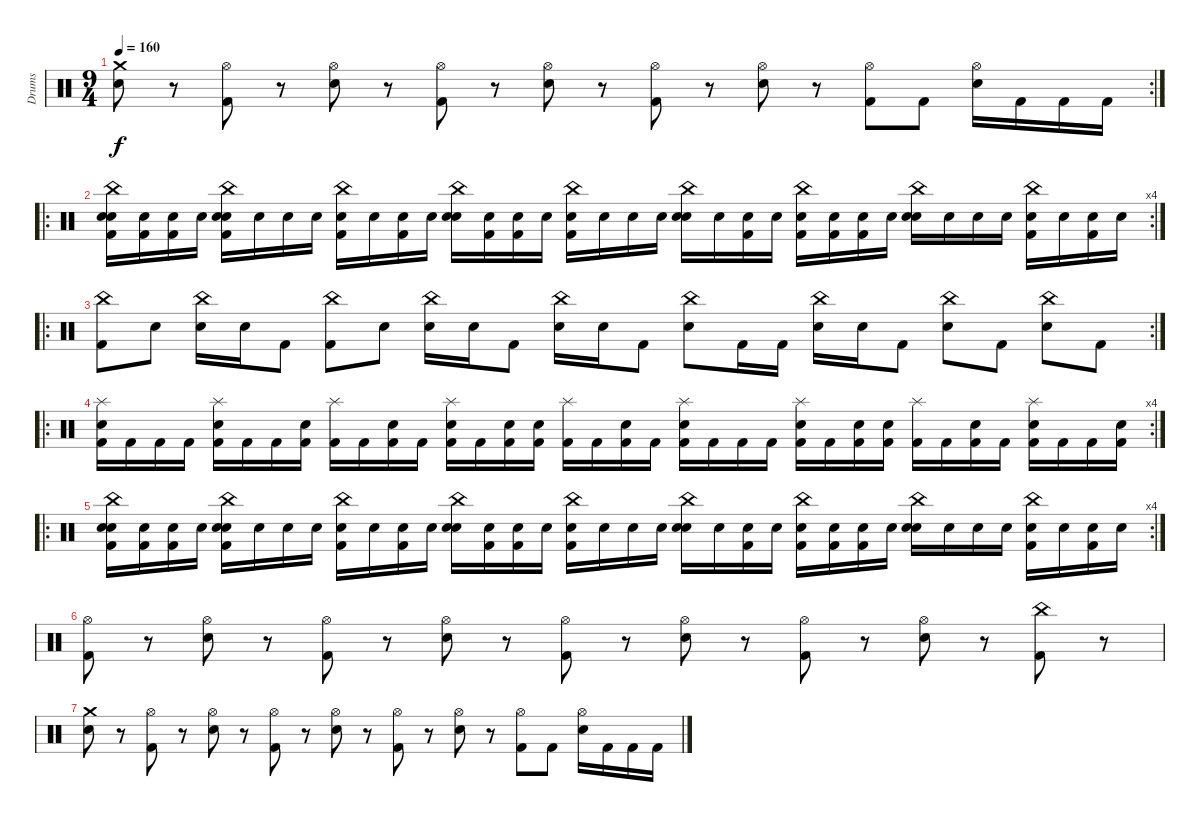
\track ("Drums" "Drums") {instrument percussion}
\staff {score}
\articulation defaults
\rc 2
\ts (9 4)
\tempo 160
\clef neutral
\ks c
("Snare (hit) 2" "Crash medium (hit)").8{dy f} r.8 ("Kick (hit) 2" "Hi-Hat (open)").8 r.8 ("Snare (hit) 2" "Hi-Hat (open)").8 r.8 ("Kick (hit) 2" "Hi-Hat (open)").8 r.8 ("Snare (hit) 2" "Hi-Hat (open)").8 r.8 ("Kick (hit) 2" "Hi-Hat (open)").8 r.8 ("Snare (hit) 2" "Hi-Hat (open)").8 r.8 ("Kick (hit) 2" "Hi-Hat (open)").8 "Kick (hit) 2".8 ("Snare (hit) 2" "Hi-Hat (open)").16 "Kick (hit) 2".16 "Kick (hit) 2".16 "Kick (hit) 2".16 |
\ro
\rc 4
("Snare (hit)" "Kick (hit) 2" "Snare (hit) 2" "China (hit)").16 ("Snare (hit)" "Kick (hit) 2").16 ("Snare (hit)" "Kick (hit) 2").16 "Snare (hit)".16 ("Snare (hit)" "Kick (hit) 2" "Snare (hit) 2" "China (hit)").16 "Snare (hit)".16 "Snare (hit)".16 "Snare (hit)".16 ("Snare (hit)" "Kick (hit) 2" "China (hit)").16 "Snare (hit)".16 ("Snare (hit)" "Kick (hit) 2").16 "Snare (hit)".16 ("Snare (hit)" "Snare (hit) 2" "China (hit)").16 ("Snare (hit)" "Kick (hit) 2").16 ("Snare (hit)" "Kick (hit) 2").16 "Snare (hit)".16 ("Snare (hit)" "Kick (hit) 2" "China (hit)").16 "Snare (hit)".16 "Snare (hit)".16 "Snare (hit)".16 ("Snare (hit)" "Snare (hit) 2" "China (hit)").16 "Snare (hit)".16 ("Snare (hit)" "Kick (hit) 2").16 "Snare (hit)".16 ("Snare (hit)" "Kick (hit) 2" "China (hit)").16 ("Snare (hit)" "Kick (hit) 2").16 ("Snare (hit)" "Kick (hit) 2").16 "Snare (hit)".16 ("Snare (hit)" "Snare (hit) 2" "China (hit)").16 "Snare (hit)".16 "Snare (hit)".16 "Snare (hit)".16 ("Snare (hit)" "Kick (hit) 2" "China (hit)").16 "Snare (hit)".16 ("Snare (hit)" "Kick (hit) 2").16 "Snare (hit)".16 |
\ro
\rc 2
("China (hit)" "Kick (hit) 2").8 "Snare (hit) 2".8 ("China (hit)" "Snare (hit) 2").16 "Snare (hit) 2".16 "Kick (hit) 2".8 ("China (hit)" "Kick (hit) 2").8 "Snare (hit) 2".8 ("China (hit)" "Snare (hit) 2").16 "Snare (hit) 2".16 "Kick (hit) 2".8 ("China (hit)" "Snare (hit) 2").16 "Snare (hit) 2".16 "Kick (hit) 2".8 ("China (hit)" "Snare (hit) 2").8 "Kick (hit) 2".16 "Kick (hit) 2".16 ("China (hit)" "Snare (hit) 2").16 "Snare (hit) 2".16 "Kick (hit) 2".8 ("China (hit)" "Snare (hit) 2").8 "Kick (hit) 2".8 ("China (hit)" "Snare (hit) 2").8 "Kick (hit) 2".8 |
\ro
\rc 4
("Kick (hit) 2" "Snare (hit) 2" "Splash (hit)").16 "Kick (hit) 2".16 "Kick (hit) 2".16 "Kick (hit) 2".16 ("Kick (hit) 2" "Snare (hit) 2" "Splash (hit)").16 "Kick (hit) 2".16 "Kick (hit) 2".16 ("Kick (hit) 2" "Snare (hit) 2").16 ("Kick (hit) 2" "Splash (hit)").16 "Kick (hit) 2".16 ("Kick (hit) 2" "Snare (hit) 2").16 "Kick (hit) 2".16 ("Kick (hit) 2" "Snare (hit) 2" "Splash (hit)").16 "Kick (hit) 2".16 ("Kick (hit) 2" "Snare (hit) 2").16 ("Kick (hit) 2" "Snare (hit) 2").16 ("Kick (hit) 2" "Splash (hit)").16 "Kick (hit) 2".16 ("Kick (hit) 2" "Snare (hit) 2").16 "Kick (hit) 2".16 ("Kick (hit) 2" "Snare (hit) 2" "Splash (hit)").16 "Kick (hit) 2".16 "Kick (hit) 2".16 "Kick (hit) 2".16 ("Kick (hit) 2" "Snare (hit) 2" "Splash (hit)").16 "Kick (hit) 2".16 ("Kick (hit) 2" "Snare (hit) 2").16 ("Kick (hit) 2" "Snare (hit) 2").16 ("Kick (hit) 2" "Splash (hit)").16 "Kick (hit) 2".16 ("Kick (hit) 2" "Snare (hit) 2").16 "Kick (hit) 2".16 ("Kick (hit) 2" "Snare (hit) 2" "Splash (hit)").16 "Kick (hit) 2".16 "Kick (hit) 2".16 ("Kick (hit) 2" "Snare (hit) 2").16 |
\ro
\rc 4
("Snare (hit)" "Kick (hit) 2" "Snare (hit) 2" "China (hit)").16 ("Snare (hit)" "Kick (hit) 2").16 ("Snare (hit)" "Kick (hit) 2").16 "Snare (hit)".16 ("Snare (hit)" "Kick (hit) 2" "Snare (hit) 2" "China (hit)").16 "Snare (hit)".16 "Snare (hit)".16 "Snare (hit)".16 ("Snare (hit)" "Kick (hit) 2" "China (hit)").16 "Snare (hit)".16 ("Snare (hit)" "Kick (hit) 2").16 "Snare (hit)".16 ("Snare (hit)" "Snare (hit) 2" "China (hit)").16 ("Snare (hit)" "Kick (hit) 2").16 ("Snare (hit)" "Kick (hit) 2").16 "Snare (hit)".16 ("Snare (hit)" "Kick (hit) 2" "China (hit)").16 "Snare (hit)".16 "Snare (hit)".16 "Snare (hit)".16 ("Snare (hit)" "Snare (hit) 2" "China (hit)").16 "Snare (hit)".16 ("Snare (hit)" "Kick (hit) 2").16 "Snare (hit)".16 ("Snare (hit)" "Kick (hit) 2" "China (hit)").16 ("Snare (hit)" "Kick (hit) 2").16 ("Snare (hit)" "Kick (hit) 2").16 "Snare (hit)".16 ("Snare (hit)" "Snare (hit) 2" "China (hit)").16 "Snare (hit)".16 "Snare (hit)".16 "Snare (hit)".16 ("Snare (hit)" "Kick (hit) 2" "China (hit)").16 "Snare (hit)".16 ("Snare (hit)" "Kick (hit) 2").16 "Snare (hit)".16 |
("Kick (hit) 2" "Hi-Hat (open)").8 r.8 ("Snare (hit) 2" "Hi-Hat (open)").8 r.8 ("Kick (hit) 2" "Hi-Hat (open)").8 r.8 ("Snare (hit) 2" "Hi-Hat (open)").8 r.8 ("Kick (hit) 2" "Hi-Hat (open)").8 r.8 ("Snare (hit) 2" "Hi-Hat (open)").8 r.8 ("Kick (hit) 2" "Hi-Hat (open)").8 r.8 ("Snare (hit) 2" "Hi-Hat (open)").8 r.8 ("Kick (hit) 2" "China (hit)").8 r.8 |
("Snare (hit) 2" "Crash medium (hit)").8 r.8 ("Kick (hit) 2" "Hi-Hat (open)").8 r.8 ("Snare (hit) 2" "Hi-Hat (open)").8 r.8 ("Kick (hit) 2" "Hi-Hat (open)").8 r.8 ("Snare (hit) 2" "Hi-Hat (open)").8 r.8 ("Kick (hit) 2" "Hi-Hat (open)").8 r.8 ("Snare (hit) 2" "Hi-Hat (open)").8 r.8 ("Kick (hit) 2" "Hi-Hat (open)").8 "Kick (hit) 2".8 ("Snare (hit) 2" "Hi-Hat (open)").16 "Kick (hit) 2".16 "Kick (hit) 2".16 "Kick (hit) 2".16
